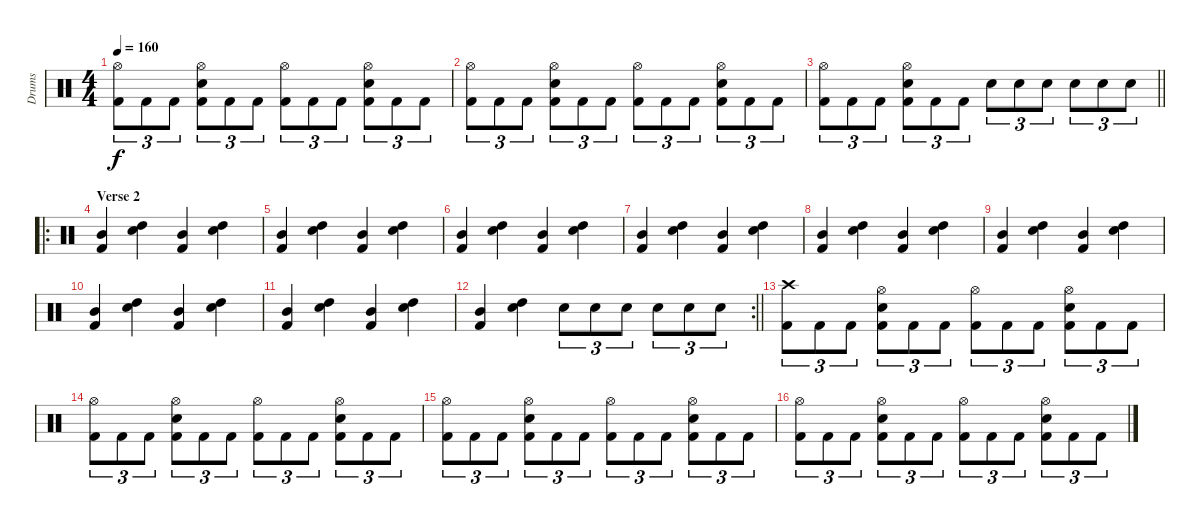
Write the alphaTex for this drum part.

\track ("Drums" "Drums") {instrument percussion}
\staff {score}
\articulation defaults
\ts (4 4)
\tempo 160
\clef neutral
\ks c
("Hi-Hat (open)" "Kick (hit) 2").8{tu (3 2) dy f} "Kick (hit) 2".8{tu (3 2)} "Kick (hit) 2".8{tu (3 2)} ("Hi-Hat (open)" "Snare (hit) 2" "Kick (hit) 2").8{tu (3 2)} "Kick (hit) 2".8{tu (3 2)} "Kick (hit) 2".8{tu (3 2)} ("Hi-Hat (open)" "Kick (hit) 2").8{tu (3 2)} "Kick (hit) 2".8{tu (3 2)} "Kick (hit) 2".8{tu (3 2)} ("Hi-Hat (open)" "Snare (hit) 2" "Kick (hit) 2").8{tu (3 2)} "Kick (hit) 2".8{tu (3 2)} "Kick (hit) 2".8{tu (3 2)} |
("Hi-Hat (open)" "Kick (hit) 2").8{tu (3 2)} "Kick (hit) 2".8{tu (3 2)} "Kick (hit) 2".8{tu (3 2)} ("Hi-Hat (open)" "Snare (hit) 2" "Kick (hit) 2").8{tu (3 2)} "Kick (hit) 2".8{tu (3 2)} "Kick (hit) 2".8{tu (3 2)} ("Hi-Hat (open)" "Kick (hit) 2").8{tu (3 2)} "Kick (hit) 2".8{tu (3 2)} "Kick (hit) 2".8{tu (3 2)} ("Hi-Hat (open)" "Snare (hit) 2" "Kick (hit) 2").8{tu (3 2)} "Kick (hit) 2".8{tu (3 2)} "Kick (hit) 2".8{tu (3 2)} |
\barLineRight lightlight
("Hi-Hat (open)" "Kick (hit) 2").8{tu (3 2)} "Kick (hit) 2".8{tu (3 2)} "Kick (hit) 2".8{tu (3 2)} ("Hi-Hat (open)" "Snare (hit) 2" "Kick (hit) 2").8{tu (3 2)} "Kick (hit) 2".8{tu (3 2)} "Kick (hit) 2".8{tu (3 2)} "Snare (hit) 2".8{tu (3 2)} "Snare (hit) 2".8{tu (3 2)} "Snare (hit) 2".8{tu (3 2)} "Snare (hit) 2".8{tu (3 2)} "Snare (hit) 2".8{tu (3 2)} "Snare (hit) 2".8{tu (3 2)} |
\ro
\section ("" "Verse 2")
("Mid Tom (hit)" "Kick (hit) 2").4 ("High Tom (hit)" "Snare (hit) 2").4 ("Mid Tom (hit)" "Kick (hit) 2").4 ("High Tom (hit)" "Snare (hit) 2").4 |
("Mid Tom (hit)" "Kick (hit) 2").4 ("High Tom (hit)" "Snare (hit) 2").4 ("Mid Tom (hit)" "Kick (hit) 2").4 ("High Tom (hit)" "Snare (hit) 2").4 |
("Mid Tom (hit)" "Kick (hit) 2").4 ("High Tom (hit)" "Snare (hit) 2").4 ("Mid Tom (hit)" "Kick (hit) 2").4 ("High Tom (hit)" "Snare (hit) 2").4 |
("Mid Tom (hit)" "Kick (hit) 2").4 ("High Tom (hit)" "Snare (hit) 2").4 ("Mid Tom (hit)" "Kick (hit) 2").4 ("High Tom (hit)" "Snare (hit) 2").4 |
("Mid Tom (hit)" "Kick (hit) 2").4 ("High Tom (hit)" "Snare (hit) 2").4 ("Mid Tom (hit)" "Kick (hit) 2").4 ("High Tom (hit)" "Snare (hit) 2").4 |
("Mid Tom (hit)" "Kick (hit) 2").4 ("High Tom (hit)" "Snare (hit) 2").4 ("Mid Tom (hit)" "Kick (hit) 2").4 ("High Tom (hit)" "Snare (hit) 2").4 |
("Mid Tom (hit)" "Kick (hit) 2").4 ("High Tom (hit)" "Snare (hit) 2").4 ("Mid Tom (hit)" "Kick (hit) 2").4 ("High Tom (hit)" "Snare (hit) 2").4 |
("Mid Tom (hit)" "Kick (hit) 2").4 ("High Tom (hit)" "Snare (hit) 2").4 ("Mid Tom (hit)" "Kick (hit) 2").4 ("High Tom (hit)" "Snare (hit) 2").4 |
\rc 2
\barLineRight lightlight
("Mid Tom (hit)" "Kick (hit) 2").4 ("High Tom (hit)" "Snare (hit) 2").4 "Snare (hit) 2".8{tu (3 2)} "Snare (hit) 2".8{tu (3 2)} "Snare (hit) 2".8{tu (3 2)} "Snare (hit) 2".8{tu (3 2)} "Snare (hit) 2".8{tu (3 2)} "Snare (hit) 2".8{tu (3 2)} |
("Crash high (hit)" "Kick (hit) 2").8{tu (3 2)} "Kick (hit) 2".8{tu (3 2)} "Kick (hit) 2".8{tu (3 2)} ("Hi-Hat (open)" "Snare (hit) 2" "Kick (hit) 2").8{tu (3 2)} "Kick (hit) 2".8{tu (3 2)} "Kick (hit) 2".8{tu (3 2)} ("Hi-Hat (open)" "Kick (hit) 2").8{tu (3 2)} "Kick (hit) 2".8{tu (3 2)} "Kick (hit) 2".8{tu (3 2)} ("Hi-Hat (open)" "Snare (hit) 2" "Kick (hit) 2").8{tu (3 2)} "Kick (hit) 2".8{tu (3 2)} "Kick (hit) 2".8{tu (3 2)} |
("Hi-Hat (open)" "Kick (hit) 2").8{tu (3 2)} "Kick (hit) 2".8{tu (3 2)} "Kick (hit) 2".8{tu (3 2)} ("Hi-Hat (open)" "Snare (hit) 2" "Kick (hit) 2").8{tu (3 2)} "Kick (hit) 2".8{tu (3 2)} "Kick (hit) 2".8{tu (3 2)} ("Hi-Hat (open)" "Kick (hit) 2").8{tu (3 2)} "Kick (hit) 2".8{tu (3 2)} "Kick (hit) 2".8{tu (3 2)} ("Hi-Hat (open)" "Snare (hit) 2" "Kick (hit) 2").8{tu (3 2)} "Kick (hit) 2".8{tu (3 2)} "Kick (hit) 2".8{tu (3 2)} |
("Hi-Hat (open)" "Kick (hit) 2").8{tu (3 2)} "Kick (hit) 2".8{tu (3 2)} "Kick (hit) 2".8{tu (3 2)} ("Hi-Hat (open)" "Snare (hit) 2" "Kick (hit) 2").8{tu (3 2)} "Kick (hit) 2".8{tu (3 2)} "Kick (hit) 2".8{tu (3 2)} ("Hi-Hat (open)" "Kick (hit) 2").8{tu (3 2)} "Kick (hit) 2".8{tu (3 2)} "Kick (hit) 2".8{tu (3 2)} ("Hi-Hat (open)" "Snare (hit) 2" "Kick (hit) 2").8{tu (3 2)} "Kick (hit) 2".8{tu (3 2)} "Kick (hit) 2".8{tu (3 2)} |
("Hi-Hat (open)" "Kick (hit) 2").8{tu (3 2)} "Kick (hit) 2".8{tu (3 2)} "Kick (hit) 2".8{tu (3 2)} ("Hi-Hat (open)" "Snare (hit) 2" "Kick (hit) 2").8{tu (3 2)} "Kick (hit) 2".8{tu (3 2)} "Kick (hit) 2".8{tu (3 2)} ("Hi-Hat (open)" "Kick (hit) 2").8{tu (3 2)} "Kick (hit) 2".8{tu (3 2)} "Kick (hit) 2".8{tu (3 2)} ("Hi-Hat (open)" "Snare (hit) 2" "Kick (hit) 2").8{tu (3 2)} "Kick (hit) 2".8{tu (3 2)} "Kick (hit) 2".8{tu (3 2)}
